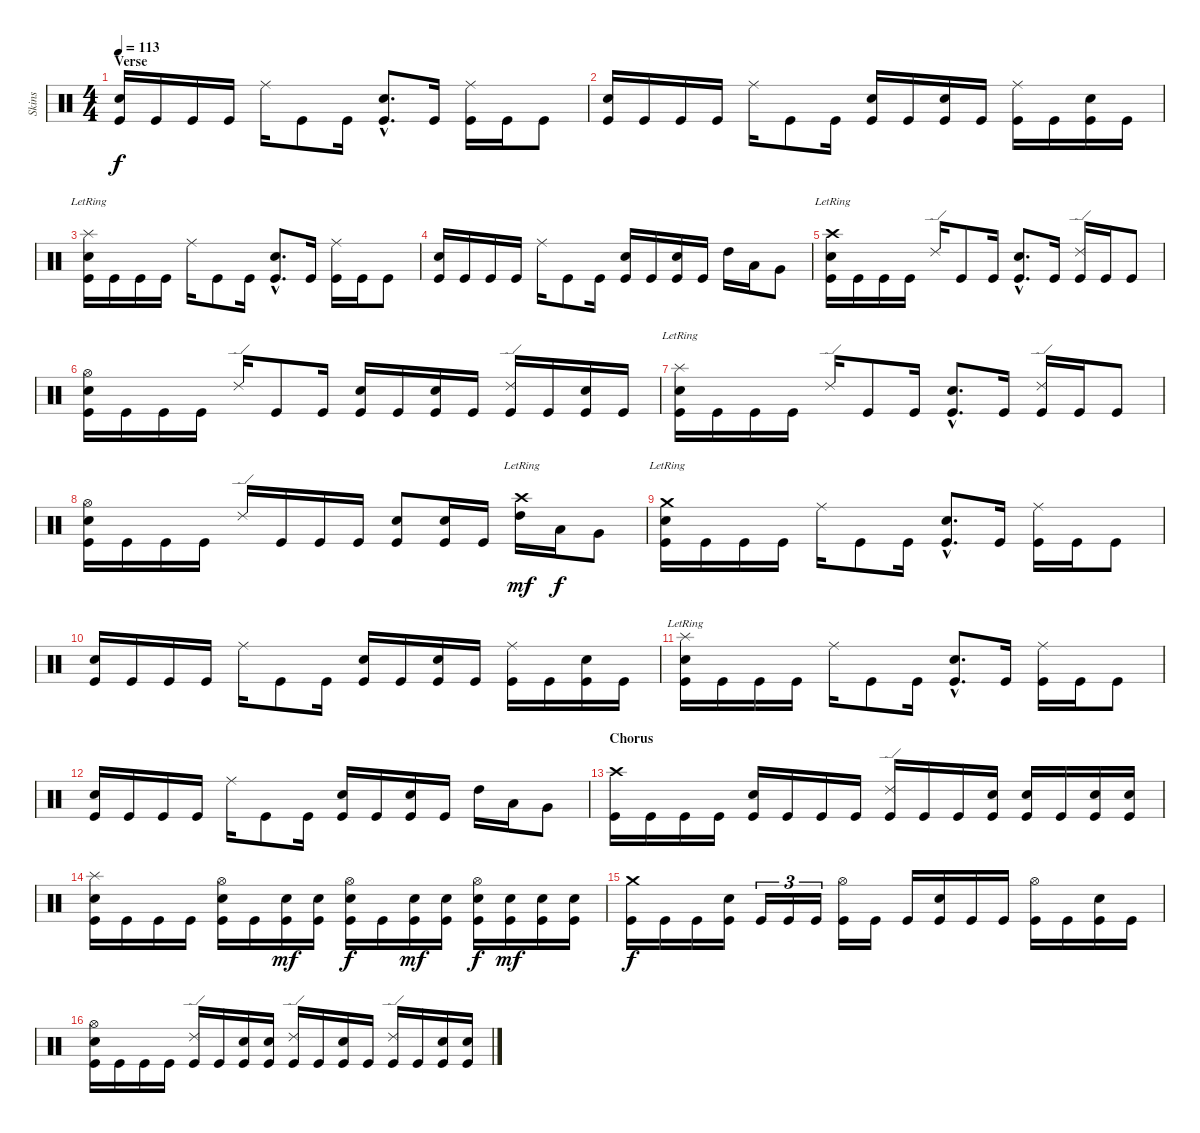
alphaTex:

\track ("Skins" "Skins") {instrument percussion}
\staff {score}
\articulation defaults
\ts (4 4)
\section ("" "Verse")
\tempo 113
\clef neutral
\ks c
("Electric Snare (hit)" "Kick (hit)").16{dy f volume 14} "Kick (hit)".16 "Kick (hit)".16 "Kick (hit)".16 "Ride (middle)".16 "Kick (hit)".8 "Kick (hit)".16 ("Electric Snare (hit)"{hac} "Kick (hit)"{hac}).8{d} "Kick (hit)".16 ("Ride (middle)" "Kick (hit)").16 "Kick (hit)".16 "Kick (hit)".8 |
("Electric Snare (hit)" "Kick (hit)").16 "Kick (hit)".16 "Kick (hit)".16 "Kick (hit)".16 "Ride (middle)".16 "Kick (hit)".8 "Kick (hit)".16 ("Snare (hit) 2" "Kick (hit)").16 "Kick (hit)".16 ("Snare (hit) 2" "Kick (hit)").16 "Kick (hit)".16 ("Ride (middle)" "Kick (hit)").16 "Kick (hit)".16 ("Snare (hit) 2" "Kick (hit)").16 "Kick (hit)".16 |
("Splash (hit)"{lr} "Electric Snare (hit)" "Kick (hit)").16 "Kick (hit)".16 "Kick (hit)".16 "Kick (hit)".16 "Ride (middle)".16 "Kick (hit)".8 "Kick (hit)".16 ("Electric Snare (hit)"{hac} "Kick (hit)"{hac}).8{d} "Kick (hit)".16 ("Ride (middle)" "Kick (hit)").16 "Kick (hit)".16 "Kick (hit)".8 |
("Electric Snare (hit)" "Kick (hit)").16 "Kick (hit)".16 "Kick (hit)".16 "Kick (hit)".16 "Ride (middle)".16 "Kick (hit)".8 "Kick (hit)".16 ("Snare (hit) 2" "Kick (hit)").16 "Kick (hit)".16 ("Snare (hit) 2" "Kick (hit)").16 "Kick (hit)".16 "High Tom (hit)".16 "Low Tom (hit)".16 "Very Low Tom (hit)".8 |
("Crash high (hit)"{lr} "Electric Snare (hit)" "Kick (hit)").16 "Kick (hit)".16 "Kick (hit)".16 "Kick (hit)".16 "Ride (edge) 2".16 "Kick (hit)".8 "Kick (hit)".16 ("Electric Snare (hit)"{hac} "Kick (hit)"{hac}).8{d} "Kick (hit)".16 ("Ride (edge) 2" "Kick (hit)").16 "Kick (hit)".16 "Kick (hit)".8 |
("Hi-Hat (open)" "Electric Snare (hit)" "Kick (hit)").16 "Kick (hit)".16 "Kick (hit)".16 "Kick (hit)".16 "Ride (edge) 2".16 "Kick (hit)".8 "Kick (hit)".16 ("Snare (hit) 2" "Kick (hit)").16 "Kick (hit)".16 ("Snare (hit) 2" "Kick (hit)").16 "Kick (hit)".16 ("Ride (edge) 2" "Kick (hit)").16 "Kick (hit)".16 ("Snare (hit) 2" "Kick (hit)").16 "Kick (hit)".16 |
("Splash (hit)"{lr} "Electric Snare (hit)" "Kick (hit)").16 "Kick (hit)".16 "Kick (hit)".16 "Kick (hit)".16 "Ride (edge) 2".16 "Kick (hit)".8 "Kick (hit)".16 ("Electric Snare (hit)"{hac} "Kick (hit)"{hac}).8{d} "Kick (hit)".16 ("Ride (edge) 2" "Kick (hit)").16 "Kick (hit)".16 "Kick (hit)".8 |
("Hi-Hat (open)" "Electric Snare (hit)" "Kick (hit)").16 "Kick (hit)".16 "Kick (hit)".16 "Kick (hit)".16 "Ride (edge) 2".16 "Kick (hit)".16 "Kick (hit)".16 "Kick (hit)".16 ("Snare (hit) 2" "Kick (hit)").8 ("Snare (hit) 2" "Kick (hit)").16 "Kick (hit)".16 ("Crash high (hit)"{lr} "High Tom (hit)").16{dy mf} "Low Tom (hit)".16{dy f} "Very Low Tom (hit)".8 |
("Crash medium (hit)"{lr} "Electric Snare (hit)" "Kick (hit)").16 "Kick (hit)".16 "Kick (hit)".16 "Kick (hit)".16 "Ride (middle)".16 "Kick (hit)".8 "Kick (hit)".16 ("Electric Snare (hit)"{hac} "Kick (hit)"{hac}).8{d} "Kick (hit)".16 ("Ride (middle)" "Kick (hit)").16 "Kick (hit)".16 "Kick (hit)".8 |
("Electric Snare (hit)" "Kick (hit)").16 "Kick (hit)".16 "Kick (hit)".16 "Kick (hit)".16 "Ride (middle)".16 "Kick (hit)".8 "Kick (hit)".16 ("Snare (hit) 2" "Kick (hit)").16 "Kick (hit)".16 ("Snare (hit) 2" "Kick (hit)").16 "Kick (hit)".16 ("Ride (middle)" "Kick (hit)").16 "Kick (hit)".16 ("Snare (hit) 2" "Kick (hit)").16 "Kick (hit)".16 |
("Splash (hit)"{lr} "Electric Snare (hit)" "Kick (hit)").16 "Kick (hit)".16 "Kick (hit)".16 "Kick (hit)".16 "Ride (middle)".16 "Kick (hit)".8 "Kick (hit)".16 ("Electric Snare (hit)"{hac} "Kick (hit)"{hac}).8{d} "Kick (hit)".16 ("Ride (middle)" "Kick (hit)").16 "Kick (hit)".16 "Kick (hit)".8 |
("Electric Snare (hit)" "Kick (hit)").16 "Kick (hit)".16 "Kick (hit)".16 "Kick (hit)".16 "Ride (middle)".16 "Kick (hit)".8 "Kick (hit)".16 ("Snare (hit) 2" "Kick (hit)").16 "Kick (hit)".16 ("Snare (hit) 2" "Kick (hit)").16 "Kick (hit)".16 "High Tom (hit)".16 "Low Tom (hit)".16 "Very Low Tom (hit)".8 |
\section ("" "Chorus")
("Crash high (hit)" "Kick (hit)").16{volume 13 balance 8} "Kick (hit)".16 "Kick (hit)".16 "Kick (hit)".16 ("Electric Snare (hit)" "Kick (hit)").16 "Kick (hit)".16 "Kick (hit)".16 "Kick (hit)".16 ("Ride (edge) 2" "Kick (hit)").16 "Kick (hit)".16 "Kick (hit)".16 ("Snare (hit) 2" "Kick (hit)").16 ("Electric Snare (hit)" "Kick (hit)").16 "Kick (hit)".16 ("Snare (hit) 2" "Kick (hit)").16 ("Snare (hit) 2" "Kick (hit)").16 |
("Splash (hit)" "Electric Snare (hit)" "Kick (hit)").16 "Kick (hit)".16 "Kick (hit)".16 "Kick (hit)".16 ("Hi-Hat (open)" "Electric Snare (hit)" "Kick (hit)").16 "Kick (hit)".16 ("Snare (hit) 2" "Kick (hit)").16{dy mf} ("Snare (hit) 2" "Kick (hit)").16 ("Hi-Hat (open)" "Electric Snare (hit)" "Kick (hit)").16{dy f} "Kick (hit)".16 ("Snare (hit) 2" "Kick (hit)").16{dy mf} ("Snare (hit) 2" "Kick (hit)").16 ("Hi-Hat (open)" "Electric Snare (hit)" "Kick (hit)").16{dy f} ("Snare (hit) 2" "Kick (hit)").16{dy mf} ("Snare (hit) 2" "Kick (hit)").16 ("Snare (hit) 2" "Kick (hit)").16 |
("Crash medium (hit)" "Kick (hit)").16{dy f} "Kick (hit)".16 "Kick (hit)".16 ("Electric Snare (hit)" "Kick (hit)").16 "Kick (hit)".16{tu (3 2)} "Kick (hit)".16{tu (3 2)} "Kick (hit)".16{tu (3 2)} ("Hi-Hat (open)" "Kick (hit)").16 "Kick (hit)".16 "Kick (hit)".16 ("Electric Snare (hit)" "Kick (hit)").16 "Kick (hit)".16 "Kick (hit)".16 ("Hi-Hat (open)" "Kick (hit)").16 "Kick (hit)".16 ("Snare (hit) 2" "Kick (hit)").16 "Kick (hit)".16 |
("Hi-Hat (open)" "Electric Snare (hit)" "Kick (hit)").16 "Kick (hit)".16 "Kick (hit)".16 "Kick (hit)".16 ("Ride (edge) 2" "Kick (hit)").16 "Kick (hit)".16 ("Snare (hit) 2" "Kick (hit)").16 ("Snare (hit) 2" "Kick (hit)").16 ("Ride (edge) 2" "Kick (hit)").16 "Kick (hit)".16 ("Snare (hit) 2" "Kick (hit)").16 "Kick (hit)".16 ("Ride (edge) 2" "Kick (hit)").16 "Kick (hit)".16 ("Snare (hit) 2" "Kick (hit)").16 ("Snare (hit) 2" "Kick (hit)").16
